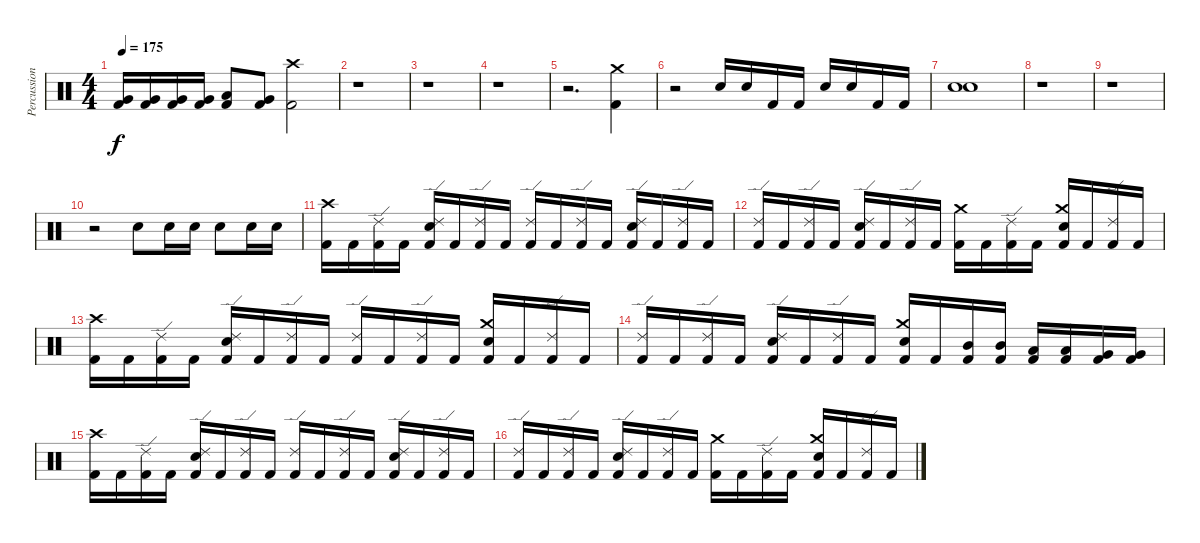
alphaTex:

\track ("Percussion" "Percussion") {instrument percussion}
\staff {score}
\articulation defaults
\ts (4 4)
\tempo 175
\clef neutral
\ks c
("Very Low Tom (hit)" "Kick (hit) 2").16{dy f} ("Very Low Tom (hit)" "Kick (hit) 2").16 ("Very Low Tom (hit)" "Kick (hit) 2").16 ("Very Low Tom (hit)" "Kick (hit) 2").16 ("Low Tom (hit)" "Kick (hit) 2").8 ("Very Low Tom (hit)" "Kick (hit) 2").8 ("Crash high (hit)" "Kick (hit) 2").2 |
r.1 |
r.1 |
r.1 |
r.2{d} ("Crash medium (hit)" "Kick (hit) 2").4 |
r.2 "Snare (hit) 2".16 "Snare (hit) 2".16 "Kick (hit) 2".16 "Kick (hit) 2".16 "Snare (hit) 2".16 "Snare (hit) 2".16 "Kick (hit) 2".16 "Kick (hit) 2".16 |
("Snare (hit) 2" "Snare (hit) 2").1{bd 120} |
r.1 |
r.1 |
r.2 "Snare (hit) 2".8 "Snare (hit) 2".16 "Snare (hit) 2".16 "Snare (hit) 2".8 "Snare (hit) 2".16 "Snare (hit) 2".16 |
("Crash high (hit)" "Kick (hit) 2").16 "Kick (hit) 2".16 ("Ride (edge) 2" "Kick (hit) 2").16 "Kick (hit) 2".16 ("Ride (edge) 2" "Snare (hit) 2" "Kick (hit) 2").16 "Kick (hit) 2".16 ("Ride (edge) 2" "Kick (hit) 2").16 "Kick (hit) 2".16 ("Ride (edge) 2" "Kick (hit) 2").16 "Kick (hit) 2".16 ("Ride (edge) 2" "Kick (hit) 2").16 "Kick (hit) 2".16 ("Ride (edge) 2" "Snare (hit) 2" "Kick (hit) 2").16 "Kick (hit) 2".16 ("Ride (edge) 2" "Kick (hit) 2").16 "Kick (hit) 2".16 |
("Ride (edge) 2" "Kick (hit) 2").16 "Kick (hit) 2".16 ("Ride (edge) 2" "Kick (hit) 2").16 "Kick (hit) 2".16 ("Ride (edge) 2" "Snare (hit) 2" "Kick (hit) 2").16 "Kick (hit) 2".16 ("Ride (edge) 2" "Kick (hit) 2").16 "Kick (hit) 2".16 ("Crash medium (hit)" "Kick (hit) 2").16 "Kick (hit) 2".16 ("Ride (edge) 2" "Kick (hit) 2").16 "Kick (hit) 2".16 ("Crash medium (hit)" "Snare (hit) 2" "Kick (hit) 2").16 "Kick (hit) 2".16 ("Ride (edge) 2" "Kick (hit) 2").16 "Kick (hit) 2".16 |
("Crash high (hit)" "Kick (hit) 2").16 "Kick (hit) 2".16 ("Ride (edge) 2" "Kick (hit) 2").16 "Kick (hit) 2".16 ("Ride (edge) 2" "Snare (hit) 2" "Kick (hit) 2").16 "Kick (hit) 2".16 ("Ride (edge) 2" "Kick (hit) 2").16 "Kick (hit) 2".16 ("Ride (edge) 2" "Kick (hit) 2").16 "Kick (hit) 2".16 ("Ride (edge) 2" "Kick (hit) 2").16 "Kick (hit) 2".16 ("Crash medium (hit)" "Snare (hit) 2" "Kick (hit) 2").16 "Kick (hit) 2".16 ("Ride (edge) 2" "Kick (hit) 2").16 "Kick (hit) 2".16 |
("Ride (edge) 2" "Kick (hit) 2").16 "Kick (hit) 2".16 ("Ride (edge) 2" "Kick (hit) 2").16 "Kick (hit) 2".16 ("Ride (edge) 2" "Snare (hit) 2" "Kick (hit) 2").16 "Kick (hit) 2".16 ("Ride (edge) 2" "Kick (hit) 2").16 "Kick (hit) 2".16 ("Crash medium (hit)" "Snare (hit) 2" "Kick (hit) 2").16 "Kick (hit) 2".16 ("Mid Tom (hit)" "Kick (hit) 2").16 ("Mid Tom (hit)" "Kick (hit) 2").16 ("Low Tom (hit)" "Kick (hit) 2").16 ("Low Tom (hit)" "Kick (hit) 2").16 ("Very Low Tom (hit)" "Kick (hit) 2").16 ("Very Low Tom (hit)" "Kick (hit) 2").16 |
("Crash high (hit)" "Kick (hit) 2").16 "Kick (hit) 2".16 ("Ride (edge) 2" "Kick (hit) 2").16 "Kick (hit) 2".16 ("Ride (edge) 2" "Snare (hit) 2" "Kick (hit) 2").16 "Kick (hit) 2".16 ("Ride (edge) 2" "Kick (hit) 2").16 "Kick (hit) 2".16 ("Ride (edge) 2" "Kick (hit) 2").16 "Kick (hit) 2".16 ("Ride (edge) 2" "Kick (hit) 2").16 "Kick (hit) 2".16 ("Ride (edge) 2" "Snare (hit) 2" "Kick (hit) 2").16 "Kick (hit) 2".16 ("Ride (edge) 2" "Kick (hit) 2").16 "Kick (hit) 2".16 |
("Ride (edge) 2" "Kick (hit) 2").16 "Kick (hit) 2".16 ("Ride (edge) 2" "Kick (hit) 2").16 "Kick (hit) 2".16 ("Ride (edge) 2" "Snare (hit) 2" "Kick (hit) 2").16 "Kick (hit) 2".16 ("Ride (edge) 2" "Kick (hit) 2").16 "Kick (hit) 2".16 ("Crash medium (hit)" "Kick (hit) 2").16 "Kick (hit) 2".16 ("Ride (edge) 2" "Kick (hit) 2").16 "Kick (hit) 2".16 ("Crash medium (hit)" "Snare (hit) 2" "Kick (hit) 2").16 "Kick (hit) 2".16 ("Ride (edge) 2" "Kick (hit) 2").16 "Kick (hit) 2".16
